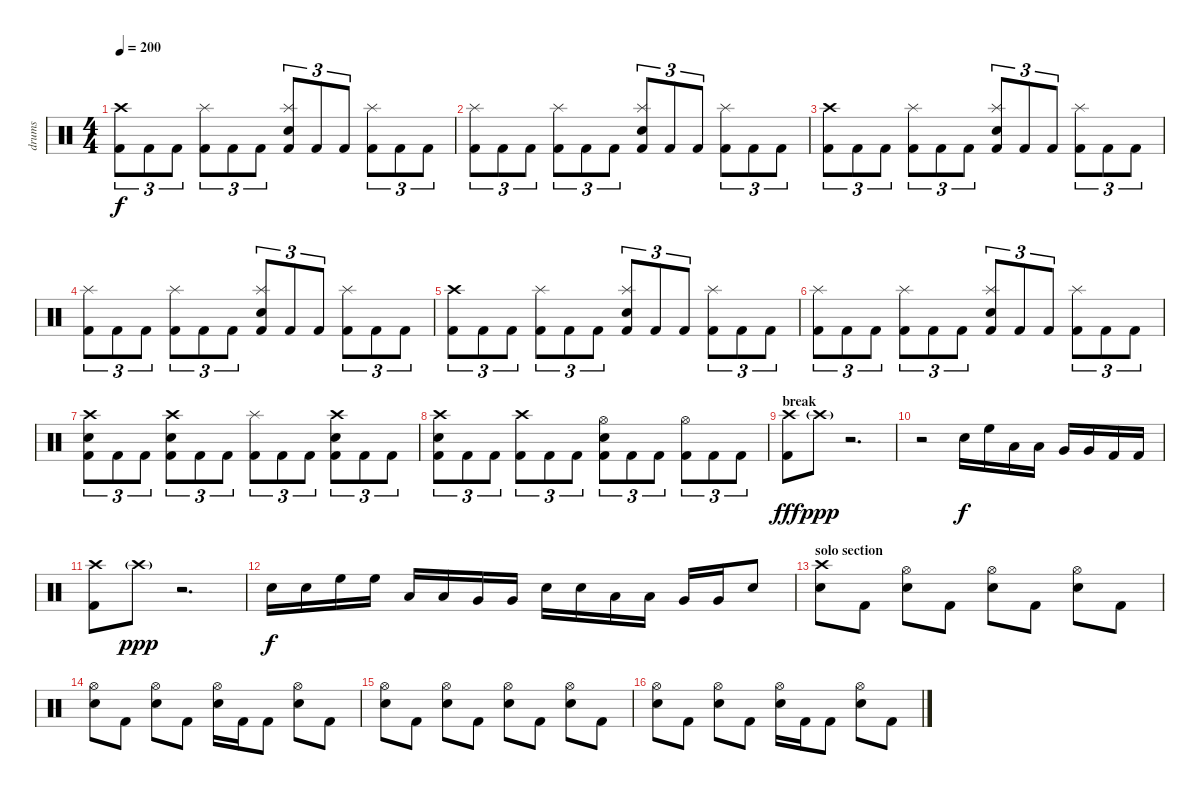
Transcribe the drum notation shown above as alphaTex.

\track ("drums" "drums") {instrument percussion}
\staff {score}
\articulation defaults
\ts (4 4)
\tempo 200
\clef neutral
\ks c
("Crash high (hit)" "Kick (hit) 2").8{tu (3 2) dy f} "Kick (hit) 2".8{tu (3 2)} "Kick (hit) 2".8{tu (3 2)} ("Splash (hit)" "Kick (hit) 2").8{tu (3 2)} "Kick (hit) 2".8{tu (3 2)} "Kick (hit) 2".8{tu (3 2)} ("Splash (hit)" "Electric Snare (hit)" "Kick (hit) 2").8{tu (3 2)} "Kick (hit) 2".8{tu (3 2)} "Kick (hit) 2".8{tu (3 2)} ("Splash (hit)" "Kick (hit) 2").8{tu (3 2)} "Kick (hit) 2".8{tu (3 2)} "Kick (hit) 2".8{tu (3 2)} |
("Splash (hit)" "Kick (hit) 2").8{tu (3 2)} "Kick (hit) 2".8{tu (3 2)} "Kick (hit) 2".8{tu (3 2)} ("Splash (hit)" "Kick (hit) 2").8{tu (3 2)} "Kick (hit) 2".8{tu (3 2)} "Kick (hit) 2".8{tu (3 2)} ("Splash (hit)" "Electric Snare (hit)" "Kick (hit) 2").8{tu (3 2)} "Kick (hit) 2".8{tu (3 2)} "Kick (hit) 2".8{tu (3 2)} ("Splash (hit)" "Kick (hit) 2").8{tu (3 2)} "Kick (hit) 2".8{tu (3 2)} "Kick (hit) 2".8{tu (3 2)} |
("Crash high (hit)" "Kick (hit) 2").8{tu (3 2)} "Kick (hit) 2".8{tu (3 2)} "Kick (hit) 2".8{tu (3 2)} ("Splash (hit)" "Kick (hit) 2").8{tu (3 2)} "Kick (hit) 2".8{tu (3 2)} "Kick (hit) 2".8{tu (3 2)} ("Splash (hit)" "Electric Snare (hit)" "Kick (hit) 2").8{tu (3 2)} "Kick (hit) 2".8{tu (3 2)} "Kick (hit) 2".8{tu (3 2)} ("Splash (hit)" "Kick (hit) 2").8{tu (3 2)} "Kick (hit) 2".8{tu (3 2)} "Kick (hit) 2".8{tu (3 2)} |
("Splash (hit)" "Kick (hit) 2").8{tu (3 2)} "Kick (hit) 2".8{tu (3 2)} "Kick (hit) 2".8{tu (3 2)} ("Splash (hit)" "Kick (hit) 2").8{tu (3 2)} "Kick (hit) 2".8{tu (3 2)} "Kick (hit) 2".8{tu (3 2)} ("Splash (hit)" "Electric Snare (hit)" "Kick (hit) 2").8{tu (3 2)} "Kick (hit) 2".8{tu (3 2)} "Kick (hit) 2".8{tu (3 2)} ("Splash (hit)" "Kick (hit) 2").8{tu (3 2)} "Kick (hit) 2".8{tu (3 2)} "Kick (hit) 2".8{tu (3 2)} |
("Crash high (hit)" "Kick (hit) 2").8{tu (3 2)} "Kick (hit) 2".8{tu (3 2)} "Kick (hit) 2".8{tu (3 2)} ("Splash (hit)" "Kick (hit) 2").8{tu (3 2)} "Kick (hit) 2".8{tu (3 2)} "Kick (hit) 2".8{tu (3 2)} ("Splash (hit)" "Electric Snare (hit)" "Kick (hit) 2").8{tu (3 2)} "Kick (hit) 2".8{tu (3 2)} "Kick (hit) 2".8{tu (3 2)} ("Splash (hit)" "Kick (hit) 2").8{tu (3 2)} "Kick (hit) 2".8{tu (3 2)} "Kick (hit) 2".8{tu (3 2)} |
("Splash (hit)" "Kick (hit) 2").8{tu (3 2)} "Kick (hit) 2".8{tu (3 2)} "Kick (hit) 2".8{tu (3 2)} ("Splash (hit)" "Kick (hit) 2").8{tu (3 2)} "Kick (hit) 2".8{tu (3 2)} "Kick (hit) 2".8{tu (3 2)} ("Splash (hit)" "Electric Snare (hit)" "Kick (hit) 2").8{tu (3 2)} "Kick (hit) 2".8{tu (3 2)} "Kick (hit) 2".8{tu (3 2)} ("Splash (hit)" "Kick (hit) 2").8{tu (3 2)} "Kick (hit) 2".8{tu (3 2)} "Kick (hit) 2".8{tu (3 2)} |
("Crash high (hit)" "Electric Snare (hit)" "Kick (hit) 2").8{tu (3 2)} "Kick (hit) 2".8{tu (3 2)} "Kick (hit) 2".8{tu (3 2)} ("Crash high (hit)" "Electric Snare (hit)" "Kick (hit) 2").8{tu (3 2)} "Kick (hit) 2".8{tu (3 2)} "Kick (hit) 2".8{tu (3 2)} ("Splash (hit)" "Kick (hit) 2").8{tu (3 2)} "Kick (hit) 2".8{tu (3 2)} "Kick (hit) 2".8{tu (3 2)} ("Crash high (hit)" "Electric Snare (hit)" "Kick (hit) 2").8{tu (3 2)} "Kick (hit) 2".8{tu (3 2)} "Kick (hit) 2".8{tu (3 2)} |
("Crash high (hit)" "Electric Snare (hit)" "Kick (hit) 2").8{tu (3 2)} "Kick (hit) 2".8{tu (3 2)} "Kick (hit) 2".8{tu (3 2)} ("Crash high (hit)" "Kick (hit) 2").8{tu (3 2)} "Kick (hit) 2".8{tu (3 2)} "Kick (hit) 2".8{tu (3 2)} ("Hi-Hat (open)" "Electric Snare (hit)" "Kick (hit) 2").8{tu (3 2)} "Kick (hit) 2".8{tu (3 2)} "Kick (hit) 2".8{tu (3 2)} ("Hi-Hat (open)" "Kick (hit) 2").8{tu (3 2)} "Kick (hit) 2".8{tu (3 2)} "Kick (hit) 2".8{tu (3 2)} |
\section ("" "break")
("Crash high (hit)"{pm} "Kick (hit) 2").8{dy fff} "Crash high (hit)"{g}.8{dy ppp} r.2{d} |
r.2 "Electric Snare (hit)".16{dy f} "High Floor Tom (hit)".16 "Low Tom (hit)".16 "Low Tom (hit)".16 "Very Low Tom (hit)".16 "Very Low Tom (hit)".16 "Kick (hit) 2".16 "Kick (hit) 2".16 |
("Crash high (hit)"{pm} "Kick (hit) 2").8 "Crash high (hit)"{g}.8{dy ppp} r.2{d} |
"Electric Snare (hit)".16{dy f} "Electric Snare (hit)".16 "High Floor Tom (hit)".16 "High Floor Tom (hit)".16 "Low Tom (hit)".16 "Low Tom (hit)".16 "Very Low Tom (hit)".16 "Very Low Tom (hit)".16 "Electric Snare (hit)".16 "Electric Snare (hit)".16 "Low Tom (hit)".16 "Low Tom (hit)".16 "Very Low Tom (hit)".16 "Very Low Tom (hit)".16 "Electric Snare (hit)".8 |
\section ("" "solo section")
("Crash high (hit)" "Electric Snare (hit)").8 "Kick (hit) 2".8 ("Hi-Hat (open)" "Electric Snare (hit)").8 "Kick (hit) 2".8 ("Hi-Hat (open)" "Electric Snare (hit)").8 "Kick (hit) 2".8 ("Hi-Hat (open)" "Electric Snare (hit)").8 "Kick (hit) 2".8 |
("Hi-Hat (open)" "Electric Snare (hit)").8 "Kick (hit) 2".8 ("Hi-Hat (open)" "Electric Snare (hit)").8 "Kick (hit) 2".8 ("Hi-Hat (open)" "Electric Snare (hit)").16 "Kick (hit) 2".16 "Kick (hit) 2".8 ("Hi-Hat (open)" "Electric Snare (hit)").8 "Kick (hit) 2".8 |
("Hi-Hat (open)" "Electric Snare (hit)").8 "Kick (hit) 2".8 ("Hi-Hat (open)" "Electric Snare (hit)").8 "Kick (hit) 2".8 ("Hi-Hat (open)" "Electric Snare (hit)").8 "Kick (hit) 2".8 ("Hi-Hat (open)" "Electric Snare (hit)").8 "Kick (hit) 2".8 |
("Hi-Hat (open)" "Electric Snare (hit)").8 "Kick (hit) 2".8 ("Hi-Hat (open)" "Electric Snare (hit)").8 "Kick (hit) 2".8 ("Hi-Hat (open)" "Electric Snare (hit)").16 "Kick (hit) 2".16 "Kick (hit) 2".8 ("Hi-Hat (open)" "Electric Snare (hit)").8 "Kick (hit) 2".8
